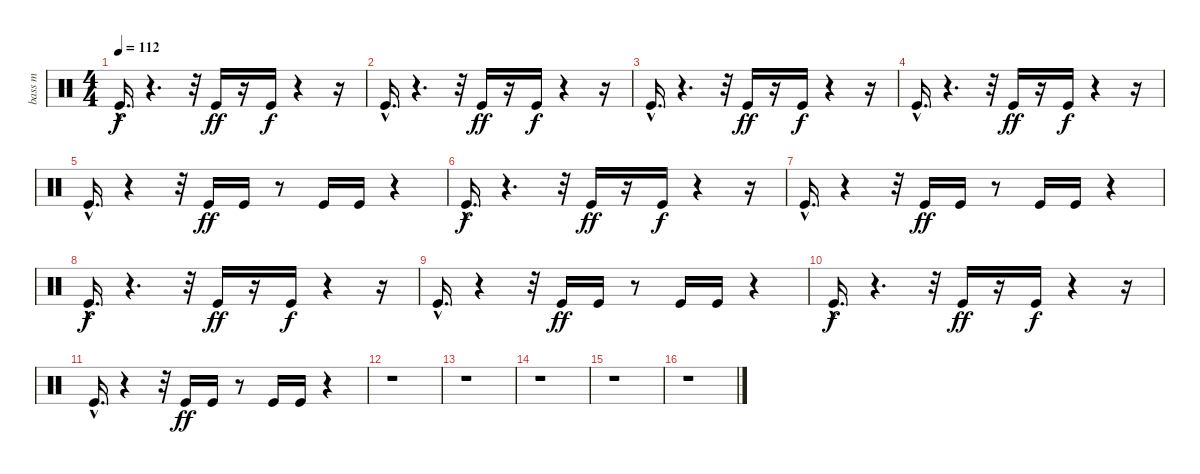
\track ("bass m" "bass m") {instrument percussion}
\staff {score}
\articulation defaults
\ts (4 4)
\tempo 112
\clef neutral
\ks c "Kick (hit)"{hac}.16{d dy f}
r.4{d} r.32 "Kick (hit)".16{dy ff} r.16 "Kick (hit)".16{dy f} r.4 r.16 |
"Kick (hit)"{hac}.16{d} r.4{d} r.32 "Kick (hit)".16{dy ff} r.16 "Kick (hit)".16{dy f} r.4 r.16 |
"Kick (hit)"{hac}.16{d} r.4{d} r.32 "Kick (hit)".16{dy ff} r.16 "Kick (hit)".16{dy f} r.4 r.16 |
"Kick (hit)"{hac}.16{d} r.4{d} r.32 "Kick (hit)".16{dy ff} r.16 "Kick (hit)".16{dy f} r.4 r.16 |
"Kick (hit)"{hac}.16{d} r.4 r.32 "Kick (hit)".16{dy ff} "Kick (hit)".16 r.8 "Kick (hit)".16 "Kick (hit)".16 r.4 |
"Kick (hit)"{hac}.16{d dy f} r.4{d} r.32 "Kick (hit)".16{dy ff} r.16 "Kick (hit)".16{dy f} r.4 r.16 |
"Kick (hit)"{hac}.16{d} r.4 r.32 "Kick (hit)".16{dy ff} "Kick (hit)".16 r.8 "Kick (hit)".16 "Kick (hit)".16 r.4 |
"Kick (hit)"{hac}.16{d dy f} r.4{d} r.32 "Kick (hit)".16{dy ff} r.16 "Kick (hit)".16{dy f} r.4 r.16 |
"Kick (hit)"{hac}.16{d} r.4 r.32 "Kick (hit)".16{dy ff} "Kick (hit)".16 r.8 "Kick (hit)".16 "Kick (hit)".16 r.4 |
"Kick (hit)"{hac}.16{d dy f} r.4{d} r.32 "Kick (hit)".16{dy ff} r.16 "Kick (hit)".16{dy f} r.4 r.16 |
"Kick (hit)"{hac}.16{d} r.4 r.32 "Kick (hit)".16{dy ff} "Kick (hit)".16 r.8 "Kick (hit)".16 "Kick (hit)".16 r.4 |
r.1 |
r.1 |
r.1 |
r.1 |
r.1
